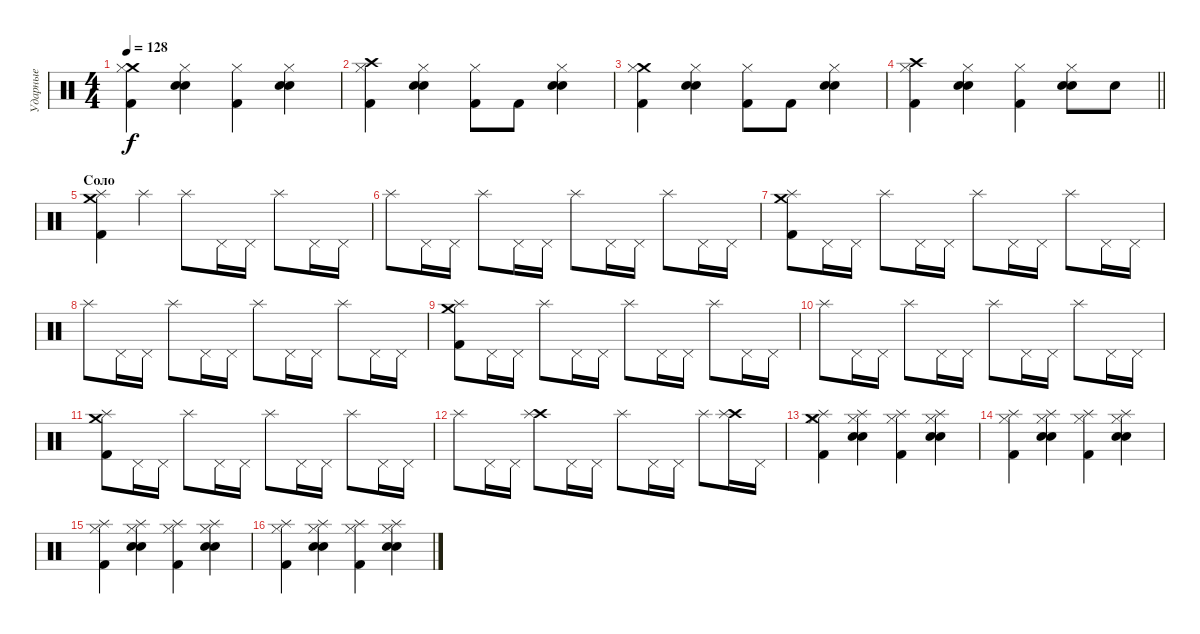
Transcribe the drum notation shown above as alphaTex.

\track ("Ударные" "Ударные") {instrument percussion}
\staff {score}
\articulation defaults
\ts (4 4)
\tempo 128
\clef neutral
\ks c
("Crash medium (hit)" "Hi-Hat (closed)" "Kick (hit) 2").4{dy f} ("Electric Snare (hit)" "Snare (hit) 2" "Hi-Hat (closed)").4 ("Hi-Hat (closed)" "Kick (hit) 2").4 ("Electric Snare (hit)" "Snare (hit) 2" "Hi-Hat (closed)").4 |
("Crash high (hit)" "Hi-Hat (closed)" "Kick (hit) 2").4 ("Electric Snare (hit)" "Snare (hit) 2" "Hi-Hat (closed)").4 ("Hi-Hat (closed)" "Kick (hit) 2").8 "Kick (hit) 2".8 ("Electric Snare (hit)" "Snare (hit) 2" "Hi-Hat (closed)").4 |
("Crash medium (hit)" "Hi-Hat (closed)" "Kick (hit) 2").4 ("Electric Snare (hit)" "Snare (hit) 2" "Hi-Hat (closed)").4 ("Hi-Hat (closed)" "Kick (hit) 2").8 "Kick (hit) 2".8 ("Electric Snare (hit)" "Snare (hit) 2" "Hi-Hat (closed)").4 |
\barLineRight lightlight
("Crash high (hit)" "Hi-Hat (closed)" "Kick (hit) 2").4 ("Electric Snare (hit)" "Snare (hit) 2" "Hi-Hat (closed)").4 ("Hi-Hat (closed)" "Kick (hit) 2").4 ("Electric Snare (hit)" "Snare (hit) 2" "Hi-Hat (closed)").8 "Electric Snare (hit)".8 |
\section ("" "Соло")
("Crash medium (hit)" "Splash (hit)" "Kick (hit) 2").4 "Splash (hit)".4 "Splash (hit)".8 "Pedal Hi-Hat (hit)".16 "Pedal Hi-Hat (hit)".16 "Splash (hit)".8 "Pedal Hi-Hat (hit)".16 "Pedal Hi-Hat (hit)".16 |
"Splash (hit)".8 "Pedal Hi-Hat (hit)".16 "Pedal Hi-Hat (hit)".16 "Splash (hit)".8 "Pedal Hi-Hat (hit)".16 "Pedal Hi-Hat (hit)".16 "Splash (hit)".8 "Pedal Hi-Hat (hit)".16 "Pedal Hi-Hat (hit)".16 "Splash (hit)".8 "Pedal Hi-Hat (hit)".16 "Pedal Hi-Hat (hit)".16 |
("Crash medium (hit)" "Splash (hit)" "Kick (hit) 2").8 "Pedal Hi-Hat (hit)".16 "Pedal Hi-Hat (hit)".16 "Splash (hit)".8 "Pedal Hi-Hat (hit)".16 "Pedal Hi-Hat (hit)".16 "Splash (hit)".8 "Pedal Hi-Hat (hit)".16 "Pedal Hi-Hat (hit)".16 "Splash (hit)".8 "Pedal Hi-Hat (hit)".16 "Pedal Hi-Hat (hit)".16 |
"Splash (hit)".8 "Pedal Hi-Hat (hit)".16 "Pedal Hi-Hat (hit)".16 "Splash (hit)".8 "Pedal Hi-Hat (hit)".16 "Pedal Hi-Hat (hit)".16 "Splash (hit)".8 "Pedal Hi-Hat (hit)".16 "Pedal Hi-Hat (hit)".16 "Splash (hit)".8 "Pedal Hi-Hat (hit)".16 "Pedal Hi-Hat (hit)".16 |
("Crash medium (hit)" "Splash (hit)" "Kick (hit) 2").8 "Pedal Hi-Hat (hit)".16 "Pedal Hi-Hat (hit)".16 "Splash (hit)".8 "Pedal Hi-Hat (hit)".16 "Pedal Hi-Hat (hit)".16 "Splash (hit)".8 "Pedal Hi-Hat (hit)".16 "Pedal Hi-Hat (hit)".16 "Splash (hit)".8 "Pedal Hi-Hat (hit)".16 "Pedal Hi-Hat (hit)".16 |
"Splash (hit)".8 "Pedal Hi-Hat (hit)".16 "Pedal Hi-Hat (hit)".16 "Splash (hit)".8 "Pedal Hi-Hat (hit)".16 "Pedal Hi-Hat (hit)".16 "Splash (hit)".8 "Pedal Hi-Hat (hit)".16 "Pedal Hi-Hat (hit)".16 "Splash (hit)".8 "Pedal Hi-Hat (hit)".16 "Pedal Hi-Hat (hit)".16 |
("Crash medium (hit)" "Splash (hit)" "Kick (hit) 2").8 "Pedal Hi-Hat (hit)".16 "Pedal Hi-Hat (hit)".16 "Splash (hit)".8 "Pedal Hi-Hat (hit)".16 "Pedal Hi-Hat (hit)".16 "Splash (hit)".8 "Pedal Hi-Hat (hit)".16 "Pedal Hi-Hat (hit)".16 "Splash (hit)".8 "Pedal Hi-Hat (hit)".16 "Pedal Hi-Hat (hit)".16 |
"Splash (hit)".8 "Pedal Hi-Hat (hit)".16 "Pedal Hi-Hat (hit)".16 ("Crash high (hit)" "Splash (hit)").8 "Pedal Hi-Hat (hit)".16 "Pedal Hi-Hat (hit)".16 "Splash (hit)".8 "Pedal Hi-Hat (hit)".16 "Pedal Hi-Hat (hit)".16 "Splash (hit)".8 ("Crash high (hit)" "Splash (hit)").16 "Pedal Hi-Hat (hit)".16 |
("Crash medium (hit)" "Splash (hit)" "Hi-Hat (closed)" "Kick (hit) 2").4 ("Splash (hit)" "Electric Snare (hit)" "Snare (hit) 2" "Hi-Hat (closed)").4 ("Splash (hit)" "Hi-Hat (closed)" "Kick (hit) 2").4 ("Splash (hit)" "Electric Snare (hit)" "Snare (hit) 2" "Hi-Hat (closed)").4 |
("Splash (hit)" "Hi-Hat (closed)" "Kick (hit) 2").4 ("Splash (hit)" "Electric Snare (hit)" "Snare (hit) 2" "Hi-Hat (closed)").4 ("Splash (hit)" "Hi-Hat (closed)" "Kick (hit) 2").4 ("Splash (hit)" "Electric Snare (hit)" "Snare (hit) 2" "Hi-Hat (closed)").4 |
("Splash (hit)" "Hi-Hat (closed)" "Kick (hit) 2").4 ("Splash (hit)" "Electric Snare (hit)" "Snare (hit) 2" "Hi-Hat (closed)").4 ("Splash (hit)" "Hi-Hat (closed)" "Kick (hit) 2").4 ("Splash (hit)" "Electric Snare (hit)" "Snare (hit) 2" "Hi-Hat (closed)").4 |
("Splash (hit)" "Hi-Hat (closed)" "Kick (hit) 2").4 ("Splash (hit)" "Electric Snare (hit)" "Snare (hit) 2" "Hi-Hat (closed)").4 ("Splash (hit)" "Hi-Hat (closed)" "Kick (hit) 2").4 ("Splash (hit)" "Electric Snare (hit)" "Snare (hit) 2" "Hi-Hat (closed)").4
